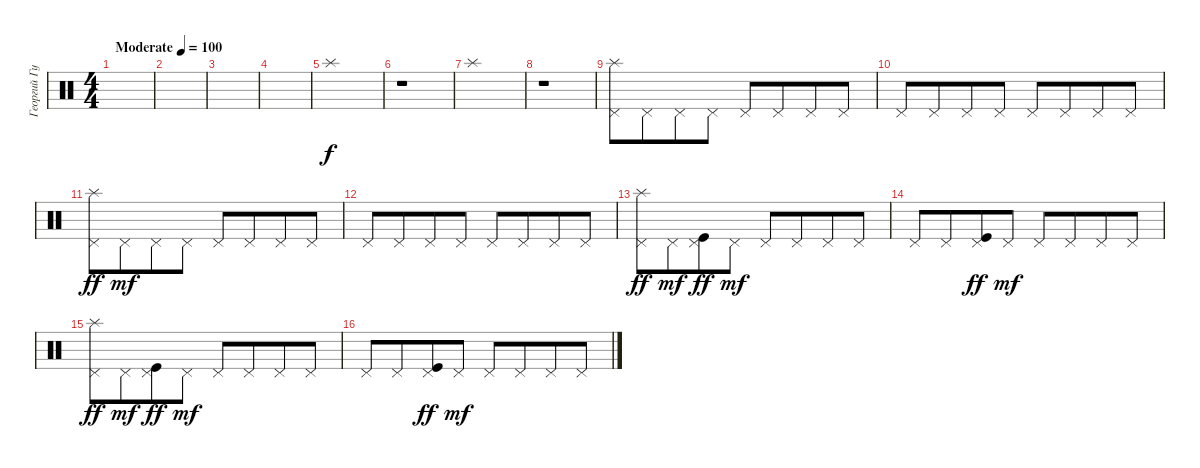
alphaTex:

\track ("Георгий Гурьянов" "Георгий Гу") {instrument percussion}
\staff {score}
\articulation defaults
\ts (4 4)
\tempo (100 "Moderate")
\clef neutral
\ks c
|
|
|
|
"Splash (hit)".1 |
r.1 |
"Splash (hit)".1 |
r.1 |
("Pedal Hi-Hat (hit)" "Splash (hit)").8 "Pedal Hi-Hat (hit)".8{beam merge} "Pedal Hi-Hat (hit)".8 "Pedal Hi-Hat (hit)".8 "Pedal Hi-Hat (hit)".8 "Pedal Hi-Hat (hit)".8{beam merge} "Pedal Hi-Hat (hit)".8 "Pedal Hi-Hat (hit)".8 |
"Pedal Hi-Hat (hit)".8 "Pedal Hi-Hat (hit)".8{beam merge} "Pedal Hi-Hat (hit)".8 "Pedal Hi-Hat (hit)".8 "Pedal Hi-Hat (hit)".8 "Pedal Hi-Hat (hit)".8{beam merge} "Pedal Hi-Hat (hit)".8 "Pedal Hi-Hat (hit)".8 |
("Pedal Hi-Hat (hit)" "Splash (hit)").8{dy ff} "Pedal Hi-Hat (hit)".8{dy mf beam merge} "Pedal Hi-Hat (hit)".8 "Pedal Hi-Hat (hit)".8 "Pedal Hi-Hat (hit)".8 "Pedal Hi-Hat (hit)".8{beam merge} "Pedal Hi-Hat (hit)".8 "Pedal Hi-Hat (hit)".8 |
"Pedal Hi-Hat (hit)".8 "Pedal Hi-Hat (hit)".8{beam merge} "Pedal Hi-Hat (hit)".8 "Pedal Hi-Hat (hit)".8 "Pedal Hi-Hat (hit)".8 "Pedal Hi-Hat (hit)".8{beam merge} "Pedal Hi-Hat (hit)".8 "Pedal Hi-Hat (hit)".8 |
("Pedal Hi-Hat (hit)" "Splash (hit)").8{dy ff} "Pedal Hi-Hat (hit)".8{dy mf beam merge} ("Pedal Hi-Hat (hit)" "Kick (hit)").8{dy ff} "Pedal Hi-Hat (hit)".8{dy mf} "Pedal Hi-Hat (hit)".8 "Pedal Hi-Hat (hit)".8{beam merge} "Pedal Hi-Hat (hit)".8 "Pedal Hi-Hat (hit)".8 |
"Pedal Hi-Hat (hit)".8 "Pedal Hi-Hat (hit)".8{beam merge} ("Pedal Hi-Hat (hit)" "Kick (hit)").8{dy ff} "Pedal Hi-Hat (hit)".8{dy mf} "Pedal Hi-Hat (hit)".8 "Pedal Hi-Hat (hit)".8{beam merge} "Pedal Hi-Hat (hit)".8 "Pedal Hi-Hat (hit)".8 |
("Pedal Hi-Hat (hit)" "Splash (hit)").8{dy ff} "Pedal Hi-Hat (hit)".8{dy mf beam merge} ("Pedal Hi-Hat (hit)" "Kick (hit)").8{dy ff} "Pedal Hi-Hat (hit)".8{dy mf} "Pedal Hi-Hat (hit)".8 "Pedal Hi-Hat (hit)".8{beam merge} "Pedal Hi-Hat (hit)".8 "Pedal Hi-Hat (hit)".8 |
"Pedal Hi-Hat (hit)".8 "Pedal Hi-Hat (hit)".8{beam merge} ("Pedal Hi-Hat (hit)" "Kick (hit)").8{dy ff} "Pedal Hi-Hat (hit)".8{dy mf} "Pedal Hi-Hat (hit)".8 "Pedal Hi-Hat (hit)".8{beam merge} "Pedal Hi-Hat (hit)".8 "Pedal Hi-Hat (hit)".8
